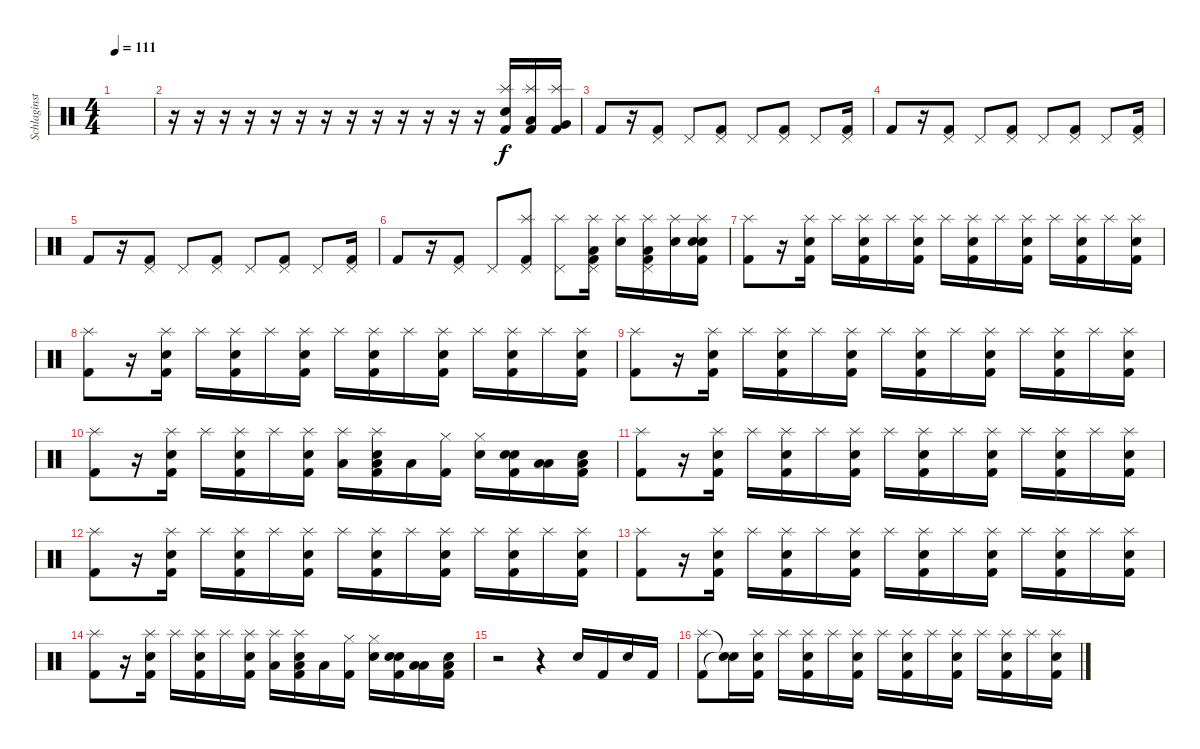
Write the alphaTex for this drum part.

\track ("Schlaginstrumente - Auswahl" "Schlaginst") {instrument percussion}
\staff {score}
\articulation defaults
\ts (4 4)
\tempo 111
\clef neutral
\ks c
|
r.16 r.16 r.16 r.16 r.16 r.16 r.16 r.16 r.16 r.16 r.16 r.16 r.16 ("Kick (hit) 2" "Splash (hit)" "Electric Snare (hit)").16 ("Kick (hit) 2" "Splash (hit)" "Low Floor Tom (hit)").16 ("Kick (hit) 2" "Splash (hit)" "Very Low Tom (hit)").16 |
"Kick (hit) 2".8 r.16 ("Pedal Hi-Hat (hit)" "Kick (hit) 2").8 "Pedal Hi-Hat (hit)".8 ("Pedal Hi-Hat (hit)" "Kick (hit) 2").8 "Pedal Hi-Hat (hit)".8 ("Pedal Hi-Hat (hit)" "Kick (hit) 2").8 "Pedal Hi-Hat (hit)".8 ("Pedal Hi-Hat (hit)" "Kick (hit) 2").16 |
"Kick (hit) 2".8 r.16 ("Pedal Hi-Hat (hit)" "Kick (hit) 2").8 "Pedal Hi-Hat (hit)".8 ("Pedal Hi-Hat (hit)" "Kick (hit) 2").8 "Pedal Hi-Hat (hit)".8 ("Pedal Hi-Hat (hit)" "Kick (hit) 2").8 "Pedal Hi-Hat (hit)".8 ("Pedal Hi-Hat (hit)" "Kick (hit) 2").16 |
"Kick (hit) 2".8 r.16 ("Pedal Hi-Hat (hit)" "Kick (hit) 2").8 "Pedal Hi-Hat (hit)".8 ("Pedal Hi-Hat (hit)" "Kick (hit) 2").8 "Pedal Hi-Hat (hit)".8 ("Pedal Hi-Hat (hit)" "Kick (hit) 2").8 "Pedal Hi-Hat (hit)".8 ("Pedal Hi-Hat (hit)" "Kick (hit) 2").16 |
"Kick (hit) 2".8 r.16 ("Pedal Hi-Hat (hit)" "Kick (hit) 2").8 "Pedal Hi-Hat (hit)".8 ("Splash (hit)" "Pedal Hi-Hat (hit)" "Kick (hit) 2").8 ("Splash (hit)" "Pedal Hi-Hat (hit)").8 ("Splash (hit)" "Low Floor Tom (hit)" "Pedal Hi-Hat (hit)" "Kick (hit) 2").16 ("Splash (hit)" "Electric Snare (hit)").16 ("Splash (hit)" "Low Floor Tom (hit)" "Pedal Hi-Hat (hit)" "Kick (hit) 2").16 ("Splash (hit)" "Electric Snare (hit)").16 ("Splash (hit)" "Electric Snare (hit)" "Electric Snare (hit)" "Kick (hit) 2").16 |
("Splash (hit)" "Kick (hit) 2").8 r.16 ("Splash (hit)" "Electric Snare (hit)" "Kick (hit) 2").16 "Splash (hit)".16 ("Splash (hit)" "Electric Snare (hit)" "Kick (hit) 2").16 "Splash (hit)".16 ("Splash (hit)" "Electric Snare (hit)" "Kick (hit) 2").16 "Splash (hit)".16 ("Splash (hit)" "Electric Snare (hit)" "Kick (hit) 2").16 "Splash (hit)".16 ("Splash (hit)" "Electric Snare (hit)" "Kick (hit) 2").16 "Splash (hit)".16 ("Splash (hit)" "Electric Snare (hit)" "Kick (hit) 2").16 "Splash (hit)".16 ("Splash (hit)" "Electric Snare (hit)" "Kick (hit) 2").16 |
("Splash (hit)" "Kick (hit) 2").8 r.16 ("Splash (hit)" "Electric Snare (hit)" "Kick (hit) 2").16 "Splash (hit)".16 ("Splash (hit)" "Electric Snare (hit)" "Kick (hit) 2").16 "Splash (hit)".16 ("Splash (hit)" "Electric Snare (hit)" "Kick (hit) 2").16 "Splash (hit)".16 ("Splash (hit)" "Electric Snare (hit)" "Kick (hit) 2").16 "Splash (hit)".16 ("Splash (hit)" "Electric Snare (hit)" "Kick (hit) 2").16 "Splash (hit)".16 ("Splash (hit)" "Electric Snare (hit)" "Kick (hit) 2").16 "Splash (hit)".16 ("Splash (hit)" "Electric Snare (hit)" "Kick (hit) 2").16 |
("Splash (hit)" "Kick (hit) 2").8 r.16 ("Splash (hit)" "Electric Snare (hit)" "Kick (hit) 2").16 "Splash (hit)".16 ("Splash (hit)" "Electric Snare (hit)" "Kick (hit) 2").16 "Splash (hit)".16 ("Splash (hit)" "Electric Snare (hit)" "Kick (hit) 2").16 "Splash (hit)".16 ("Splash (hit)" "Electric Snare (hit)" "Kick (hit) 2").16 "Splash (hit)".16 ("Splash (hit)" "Electric Snare (hit)" "Kick (hit) 2").16 "Splash (hit)".16 ("Splash (hit)" "Electric Snare (hit)" "Kick (hit) 2").16 "Splash (hit)".16 ("Splash (hit)" "Electric Snare (hit)" "Kick (hit) 2").16 |
("Splash (hit)" "Kick (hit) 2").8 r.16 ("Splash (hit)" "Electric Snare (hit)" "Kick (hit) 2").16 "Splash (hit)".16 ("Splash (hit)" "Electric Snare (hit)" "Kick (hit) 2").16 "Splash (hit)".16 ("Splash (hit)" "Electric Snare (hit)" "Kick (hit) 2").16 ("Low Floor Tom (hit)" "Splash (hit)").16 ("Low Floor Tom (hit)" "Splash (hit)" "Electric Snare (hit)" "Kick (hit) 2").16 "Low Floor Tom (hit)".16 ("Hi-Hat (closed)" "Kick (hit) 2").16 ("Hi-Hat (closed)" "Electric Snare (hit)").16 ("Electric Snare (hit)" "Electric Snare (hit)" "Kick (hit) 2").16 ("Low Tom (hit)" "Low Tom (hit)").16 ("Low Tom (hit)" "Electric Snare (hit)" "Kick (hit) 2").16 |
("Splash (hit)" "Kick (hit) 2").8 r.16 ("Splash (hit)" "Electric Snare (hit)" "Kick (hit) 2").16 "Splash (hit)".16 ("Splash (hit)" "Electric Snare (hit)" "Kick (hit) 2").16 "Splash (hit)".16 ("Splash (hit)" "Electric Snare (hit)" "Kick (hit) 2").16 "Splash (hit)".16 ("Splash (hit)" "Electric Snare (hit)" "Kick (hit) 2").16 "Splash (hit)".16 ("Splash (hit)" "Electric Snare (hit)" "Kick (hit) 2").16 "Splash (hit)".16 ("Splash (hit)" "Electric Snare (hit)" "Kick (hit) 2").16 "Splash (hit)".16 ("Splash (hit)" "Electric Snare (hit)" "Kick (hit) 2").16 |
("Splash (hit)" "Kick (hit) 2").8 r.16 ("Splash (hit)" "Electric Snare (hit)" "Kick (hit) 2").16 "Splash (hit)".16 ("Splash (hit)" "Electric Snare (hit)" "Kick (hit) 2").16 "Splash (hit)".16 ("Splash (hit)" "Electric Snare (hit)" "Kick (hit) 2").16 "Splash (hit)".16 ("Splash (hit)" "Electric Snare (hit)" "Kick (hit) 2").16 "Splash (hit)".16 ("Splash (hit)" "Electric Snare (hit)" "Kick (hit) 2").16 "Splash (hit)".16 ("Splash (hit)" "Electric Snare (hit)" "Kick (hit) 2").16 "Splash (hit)".16 ("Splash (hit)" "Electric Snare (hit)" "Kick (hit) 2").16 |
("Splash (hit)" "Kick (hit) 2").8 r.16 ("Splash (hit)" "Electric Snare (hit)" "Kick (hit) 2").16 "Splash (hit)".16 ("Splash (hit)" "Electric Snare (hit)" "Kick (hit) 2").16 "Splash (hit)".16 ("Splash (hit)" "Electric Snare (hit)" "Kick (hit) 2").16 "Splash (hit)".16 ("Splash (hit)" "Electric Snare (hit)" "Kick (hit) 2").16 "Splash (hit)".16 ("Splash (hit)" "Electric Snare (hit)" "Kick (hit) 2").16 "Splash (hit)".16 ("Splash (hit)" "Electric Snare (hit)" "Kick (hit) 2").16 "Splash (hit)".16 ("Splash (hit)" "Electric Snare (hit)" "Kick (hit) 2").16 |
("Splash (hit)" "Kick (hit) 2").8 r.16 ("Splash (hit)" "Electric Snare (hit)" "Kick (hit) 2").16 "Splash (hit)".16 ("Splash (hit)" "Electric Snare (hit)" "Kick (hit) 2").16 "Splash (hit)".16 ("Splash (hit)" "Electric Snare (hit)" "Kick (hit) 2").16 ("Low Floor Tom (hit)" "Splash (hit)").16 ("Low Floor Tom (hit)" "Splash (hit)" "Electric Snare (hit)" "Kick (hit) 2").16 "Low Floor Tom (hit)".16 ("Hi-Hat (closed)" "Kick (hit) 2").16 ("Hi-Hat (closed)" "Electric Snare (hit)").16 ("Electric Snare (hit)" "Electric Snare (hit)" "Kick (hit) 2").16 ("Low Tom (hit)" "Low Tom (hit)").16 ("Low Tom (hit)" "Electric Snare (hit)" "Kick (hit) 2").16 |
r.2 r.4 "Electric Snare (hit)".16 "Kick (hit) 2".16 "Electric Snare (hit)".16 "Kick (hit) 2".16 |
("Splash (hit)" "Kick (hit) 2").8 ("Snare (hit)"{t} "Snare (hit)"{t}).16 ("Splash (hit)" "Electric Snare (hit)" "Kick (hit) 2").16 "Splash (hit)".16 ("Splash (hit)" "Electric Snare (hit)" "Kick (hit) 2").16 "Splash (hit)".16 ("Splash (hit)" "Electric Snare (hit)" "Kick (hit) 2").16 "Splash (hit)".16 ("Splash (hit)" "Electric Snare (hit)" "Kick (hit) 2").16 "Splash (hit)".16 ("Splash (hit)" "Electric Snare (hit)" "Kick (hit) 2").16 "Splash (hit)".16 ("Splash (hit)" "Electric Snare (hit)" "Kick (hit) 2").16 "Splash (hit)".16 ("Splash (hit)" "Electric Snare (hit)" "Kick (hit) 2").16
